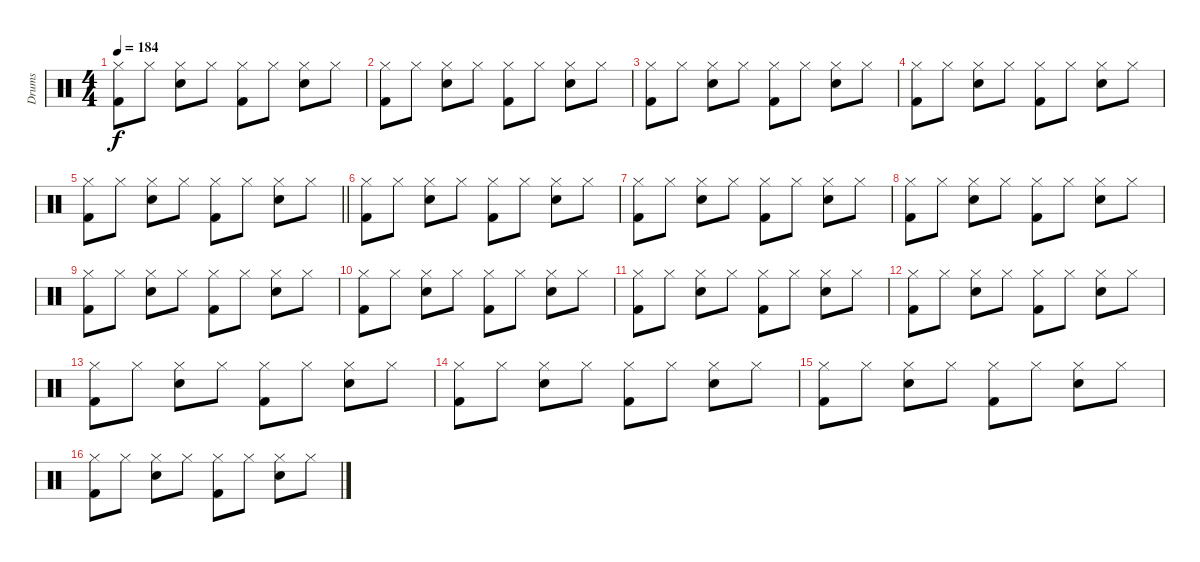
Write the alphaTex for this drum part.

\track ("Drums" "Drums") {instrument percussion}
\staff {score}
\articulation defaults
\ts (4 4)
\tempo 184
\clef neutral
\ks c
("Hi-Hat (closed)" "Kick (hit) 2").8{dy f} "Hi-Hat (closed)".8 ("Hi-Hat (closed)" "Snare (hit) 2").8 "Hi-Hat (closed)".8 ("Hi-Hat (closed)" "Kick (hit) 2").8 "Hi-Hat (closed)".8 ("Hi-Hat (closed)" "Snare (hit) 2").8 "Hi-Hat (closed)".8 |
("Hi-Hat (closed)" "Kick (hit) 2").8 "Hi-Hat (closed)".8 ("Hi-Hat (closed)" "Snare (hit) 2").8 "Hi-Hat (closed)".8 ("Hi-Hat (closed)" "Kick (hit) 2").8 "Hi-Hat (closed)".8 ("Hi-Hat (closed)" "Snare (hit) 2").8 "Hi-Hat (closed)".8 |
("Hi-Hat (closed)" "Kick (hit) 2").8 "Hi-Hat (closed)".8 ("Hi-Hat (closed)" "Snare (hit) 2").8 "Hi-Hat (closed)".8 ("Hi-Hat (closed)" "Kick (hit) 2").8 "Hi-Hat (closed)".8 ("Hi-Hat (closed)" "Snare (hit) 2").8 "Hi-Hat (closed)".8 |
("Hi-Hat (closed)" "Kick (hit) 2").8 "Hi-Hat (closed)".8 ("Hi-Hat (closed)" "Snare (hit) 2").8 "Hi-Hat (closed)".8 ("Hi-Hat (closed)" "Kick (hit) 2").8 "Hi-Hat (closed)".8 ("Hi-Hat (closed)" "Snare (hit) 2").8 "Hi-Hat (closed)".8 |
\barLineRight lightlight
("Hi-Hat (closed)" "Kick (hit) 2").8 "Hi-Hat (closed)".8 ("Hi-Hat (closed)" "Snare (hit) 2").8 "Hi-Hat (closed)".8 ("Hi-Hat (closed)" "Kick (hit) 2").8 "Hi-Hat (closed)".8 ("Hi-Hat (closed)" "Snare (hit) 2").8 "Hi-Hat (closed)".8 |
("Hi-Hat (closed)" "Kick (hit) 2").8 "Hi-Hat (closed)".8 ("Hi-Hat (closed)" "Snare (hit) 2").8 "Hi-Hat (closed)".8 ("Hi-Hat (closed)" "Kick (hit) 2").8 "Hi-Hat (closed)".8 ("Hi-Hat (closed)" "Snare (hit) 2").8 "Hi-Hat (closed)".8 |
("Hi-Hat (closed)" "Kick (hit) 2").8 "Hi-Hat (closed)".8 ("Hi-Hat (closed)" "Snare (hit) 2").8 "Hi-Hat (closed)".8 ("Hi-Hat (closed)" "Kick (hit) 2").8 "Hi-Hat (closed)".8 ("Hi-Hat (closed)" "Snare (hit) 2").8 "Hi-Hat (closed)".8 |
("Hi-Hat (closed)" "Kick (hit) 2").8 "Hi-Hat (closed)".8 ("Hi-Hat (closed)" "Snare (hit) 2").8 "Hi-Hat (closed)".8 ("Hi-Hat (closed)" "Kick (hit) 2").8 "Hi-Hat (closed)".8 ("Hi-Hat (closed)" "Snare (hit) 2").8 "Hi-Hat (closed)".8 |
("Hi-Hat (closed)" "Kick (hit) 2").8 "Hi-Hat (closed)".8 ("Hi-Hat (closed)" "Snare (hit) 2").8 "Hi-Hat (closed)".8 ("Hi-Hat (closed)" "Kick (hit) 2").8 "Hi-Hat (closed)".8 ("Hi-Hat (closed)" "Snare (hit) 2").8 "Hi-Hat (closed)".8 |
("Hi-Hat (closed)" "Kick (hit) 2").8 "Hi-Hat (closed)".8 ("Hi-Hat (closed)" "Snare (hit) 2").8 "Hi-Hat (closed)".8 ("Hi-Hat (closed)" "Kick (hit) 2").8 "Hi-Hat (closed)".8 ("Hi-Hat (closed)" "Snare (hit) 2").8 "Hi-Hat (closed)".8 |
("Hi-Hat (closed)" "Kick (hit) 2").8 "Hi-Hat (closed)".8 ("Hi-Hat (closed)" "Snare (hit) 2").8 "Hi-Hat (closed)".8 ("Hi-Hat (closed)" "Kick (hit) 2").8 "Hi-Hat (closed)".8 ("Hi-Hat (closed)" "Snare (hit) 2").8 "Hi-Hat (closed)".8 |
("Hi-Hat (closed)" "Kick (hit) 2").8 "Hi-Hat (closed)".8 ("Hi-Hat (closed)" "Snare (hit) 2").8 "Hi-Hat (closed)".8 ("Hi-Hat (closed)" "Kick (hit) 2").8 "Hi-Hat (closed)".8 ("Hi-Hat (closed)" "Snare (hit) 2").8 "Hi-Hat (closed)".8 |
("Hi-Hat (closed)" "Kick (hit) 2").8 "Hi-Hat (closed)".8 ("Hi-Hat (closed)" "Snare (hit) 2").8 "Hi-Hat (closed)".8 ("Hi-Hat (closed)" "Kick (hit) 2").8 "Hi-Hat (closed)".8 ("Hi-Hat (closed)" "Snare (hit) 2").8 "Hi-Hat (closed)".8 |
("Hi-Hat (closed)" "Kick (hit) 2").8 "Hi-Hat (closed)".8 ("Hi-Hat (closed)" "Snare (hit) 2").8 "Hi-Hat (closed)".8 ("Hi-Hat (closed)" "Kick (hit) 2").8 "Hi-Hat (closed)".8 ("Hi-Hat (closed)" "Snare (hit) 2").8 "Hi-Hat (closed)".8 |
("Hi-Hat (closed)" "Kick (hit) 2").8 "Hi-Hat (closed)".8 ("Hi-Hat (closed)" "Snare (hit) 2").8 "Hi-Hat (closed)".8 ("Hi-Hat (closed)" "Kick (hit) 2").8 "Hi-Hat (closed)".8 ("Hi-Hat (closed)" "Snare (hit) 2").8 "Hi-Hat (closed)".8 |
("Hi-Hat (closed)" "Kick (hit) 2").8 "Hi-Hat (closed)".8 ("Hi-Hat (closed)" "Snare (hit) 2").8 "Hi-Hat (closed)".8 ("Hi-Hat (closed)" "Kick (hit) 2").8 "Hi-Hat (closed)".8 ("Hi-Hat (closed)" "Snare (hit) 2").8 "Hi-Hat (closed)".8
